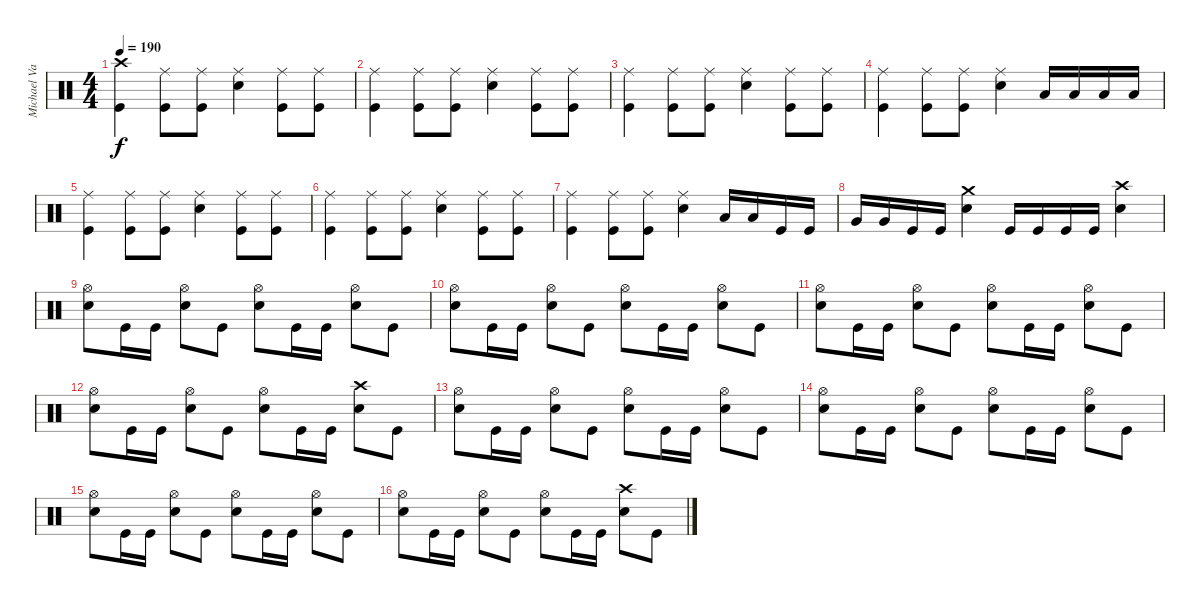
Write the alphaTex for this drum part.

\track ("Michael VanDyne" "Michael Va") {instrument percussion}
\staff {score}
\articulation defaults
\ts (4 4)
\tempo 190
\clef neutral
\ks c
("Crash high (hit)" "Kick (hit)").4{dy f} ("Ride (middle)" "Kick (hit)").8 ("Ride (middle)" "Kick (hit)").8 ("Ride (middle)" "Electric Snare (hit)").4 ("Ride (middle)" "Kick (hit)").8 ("Ride (middle)" "Kick (hit)").8 |
("Ride (middle)" "Kick (hit)").4 ("Ride (middle)" "Kick (hit)").8 ("Ride (middle)" "Kick (hit)").8 ("Ride (middle)" "Electric Snare (hit)").4 ("Ride (middle)" "Kick (hit)").8 ("Ride (middle)" "Kick (hit)").8 |
("Ride (middle)" "Kick (hit)").4 ("Ride (middle)" "Kick (hit)").8 ("Ride (middle)" "Kick (hit)").8 ("Ride (middle)" "Electric Snare (hit)").4 ("Ride (middle)" "Kick (hit)").8 ("Ride (middle)" "Kick (hit)").8 |
("Ride (middle)" "Kick (hit)").4 ("Ride (middle)" "Kick (hit)").8 ("Ride (middle)" "Kick (hit)").8 ("Ride (middle)" "Electric Snare (hit)").4 "Low Tom (hit)".16 "Low Tom (hit)".16 "Low Tom (hit)".16 "Low Tom (hit)".16 |
("Ride (middle)" "Kick (hit)").4 ("Ride (middle)" "Kick (hit)").8 ("Ride (middle)" "Kick (hit)").8 ("Ride (middle)" "Electric Snare (hit)").4 ("Ride (middle)" "Kick (hit)").8 ("Ride (middle)" "Kick (hit)").8 |
("Ride (middle)" "Kick (hit)").4 ("Ride (middle)" "Kick (hit)").8 ("Ride (middle)" "Kick (hit)").8 ("Ride (middle)" "Electric Snare (hit)").4 ("Ride (middle)" "Kick (hit)").8 ("Ride (middle)" "Kick (hit)").8 |
("Ride (middle)" "Kick (hit)").4 ("Ride (middle)" "Kick (hit)").8 ("Ride (middle)" "Kick (hit)").8 ("Ride (middle)" "Electric Snare (hit)").4 "Low Tom (hit)".16 "Low Tom (hit)".16 "Kick (hit)".16 "Kick (hit)".16 |
"Very Low Tom (hit)".16 "Very Low Tom (hit)".16 "Kick (hit)".16 "Kick (hit)".16 ("Crash medium (hit)" "Electric Snare (hit)").4 "Kick (hit)".16 "Kick (hit)".16 "Kick (hit)".16 "Kick (hit)".16 ("Crash high (hit)" "Electric Snare (hit)").4 |
("Hi-Hat (open)" "Electric Snare (hit)").8 "Kick (hit)".16 "Kick (hit)".16 ("Hi-Hat (open)" "Electric Snare (hit)").8 "Kick (hit)".8 ("Hi-Hat (open)" "Electric Snare (hit)").8 "Kick (hit)".16 "Kick (hit)".16 ("Hi-Hat (open)" "Electric Snare (hit)").8 "Kick (hit)".8 |
("Hi-Hat (open)" "Electric Snare (hit)").8 "Kick (hit)".16 "Kick (hit)".16 ("Hi-Hat (open)" "Electric Snare (hit)").8 "Kick (hit)".8 ("Hi-Hat (open)" "Electric Snare (hit)").8 "Kick (hit)".16 "Kick (hit)".16 ("Hi-Hat (open)" "Electric Snare (hit)").8 "Kick (hit)".8 |
("Hi-Hat (open)" "Electric Snare (hit)").8 "Kick (hit)".16 "Kick (hit)".16 ("Hi-Hat (open)" "Electric Snare (hit)").8 "Kick (hit)".8 ("Hi-Hat (open)" "Electric Snare (hit)").8 "Kick (hit)".16 "Kick (hit)".16 ("Hi-Hat (open)" "Electric Snare (hit)").8 "Kick (hit)".8 |
("Hi-Hat (open)" "Electric Snare (hit)").8 "Kick (hit)".16 "Kick (hit)".16 ("Hi-Hat (open)" "Electric Snare (hit)").8 "Kick (hit)".8 ("Hi-Hat (open)" "Electric Snare (hit)").8 "Kick (hit)".16 "Kick (hit)".16 ("Crash high (hit)" "Electric Snare (hit)").8 "Kick (hit)".8 |
("Hi-Hat (open)" "Electric Snare (hit)").8 "Kick (hit)".16 "Kick (hit)".16 ("Hi-Hat (open)" "Electric Snare (hit)").8 "Kick (hit)".8 ("Hi-Hat (open)" "Electric Snare (hit)").8 "Kick (hit)".16 "Kick (hit)".16 ("Hi-Hat (open)" "Electric Snare (hit)").8 "Kick (hit)".8 |
("Hi-Hat (open)" "Electric Snare (hit)").8 "Kick (hit)".16 "Kick (hit)".16 ("Hi-Hat (open)" "Electric Snare (hit)").8 "Kick (hit)".8 ("Hi-Hat (open)" "Electric Snare (hit)").8 "Kick (hit)".16 "Kick (hit)".16 ("Hi-Hat (open)" "Electric Snare (hit)").8 "Kick (hit)".8 |
("Hi-Hat (open)" "Electric Snare (hit)").8 "Kick (hit)".16 "Kick (hit)".16 ("Hi-Hat (open)" "Electric Snare (hit)").8 "Kick (hit)".8 ("Hi-Hat (open)" "Electric Snare (hit)").8 "Kick (hit)".16 "Kick (hit)".16 ("Hi-Hat (open)" "Electric Snare (hit)").8 "Kick (hit)".8 |
("Hi-Hat (open)" "Electric Snare (hit)").8 "Kick (hit)".16 "Kick (hit)".16 ("Hi-Hat (open)" "Electric Snare (hit)").8 "Kick (hit)".8 ("Hi-Hat (open)" "Electric Snare (hit)").8 "Kick (hit)".16 "Kick (hit)".16 ("Crash high (hit)" "Electric Snare (hit)").8 "Kick (hit)".8
